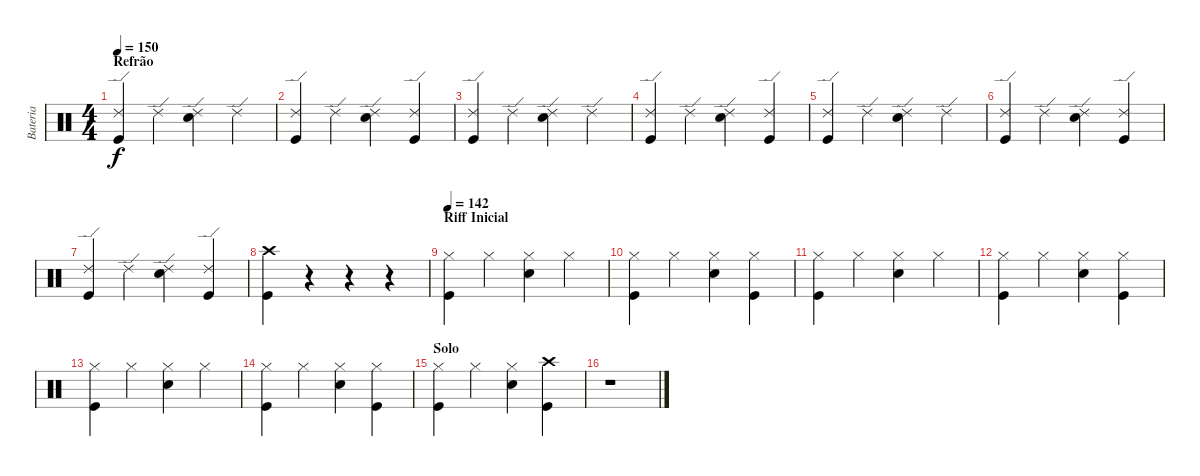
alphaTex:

\track ("Bateria" "Bateria") {instrument percussion}
\staff {score}
\articulation defaults
\ts (4 4)
\section ("" "Refrão")
\tempo 150
\clef neutral
\ks c
("Ride (edge) 2" "Kick (hit)").4{dy f} "Ride (edge) 2".4 ("Ride (edge) 2" "Snare (hit) 2").4 "Ride (edge) 2".4 |
("Ride (edge) 2" "Kick (hit)").4 "Ride (edge) 2".4 ("Ride (edge) 2" "Snare (hit) 2").4 ("Ride (edge) 2" "Kick (hit)").4 |
("Ride (edge) 2" "Kick (hit)").4 "Ride (edge) 2".4 ("Ride (edge) 2" "Snare (hit) 2").4 "Ride (edge) 2".4 |
("Ride (edge) 2" "Kick (hit)").4 "Ride (edge) 2".4 ("Ride (edge) 2" "Snare (hit) 2").4 ("Ride (edge) 2" "Kick (hit)").4 |
("Ride (edge) 2" "Kick (hit)").4 "Ride (edge) 2".4 ("Ride (edge) 2" "Snare (hit) 2").4 "Ride (edge) 2".4 |
("Ride (edge) 2" "Kick (hit)").4 "Ride (edge) 2".4 ("Ride (edge) 2" "Snare (hit) 2").4 ("Ride (edge) 2" "Kick (hit)").4 |
("Ride (edge) 2" "Kick (hit)").4 "Ride (edge) 2".4 ("Ride (edge) 2" "Snare (hit) 2").4 ("Ride (edge) 2" "Kick (hit)").4 |
("Crash high (hit)" "Kick (hit)").4 r.4 r.4 r.4 |
\section ("" "Riff Inicial")
\tempo 142
("Hi-Hat (closed)" "Kick (hit)").4 "Hi-Hat (closed)".4 ("Hi-Hat (closed)" "Snare (hit) 2").4 "Hi-Hat (closed)".4 |
("Hi-Hat (closed)" "Kick (hit)").4 "Hi-Hat (closed)".4 ("Hi-Hat (closed)" "Snare (hit) 2").4 ("Hi-Hat (closed)" "Kick (hit)").4 |
("Hi-Hat (closed)" "Kick (hit)").4 "Hi-Hat (closed)".4 ("Hi-Hat (closed)" "Snare (hit) 2").4 "Hi-Hat (closed)".4 |
("Hi-Hat (closed)" "Kick (hit)").4 "Hi-Hat (closed)".4 ("Hi-Hat (closed)" "Snare (hit) 2").4 ("Hi-Hat (closed)" "Kick (hit)").4 |
("Hi-Hat (closed)" "Kick (hit)").4 "Hi-Hat (closed)".4 ("Hi-Hat (closed)" "Snare (hit) 2").4 "Hi-Hat (closed)".4 |
("Hi-Hat (closed)" "Kick (hit)").4 "Hi-Hat (closed)".4 ("Hi-Hat (closed)" "Snare (hit) 2").4 ("Hi-Hat (closed)" "Kick (hit)").4 |
\section ("" "Solo")
("Hi-Hat (closed)" "Kick (hit)").4 "Hi-Hat (closed)".4 ("Hi-Hat (closed)" "Snare (hit) 2").4 ("Crash high (hit)" "Kick (hit)").4 |
r.1
